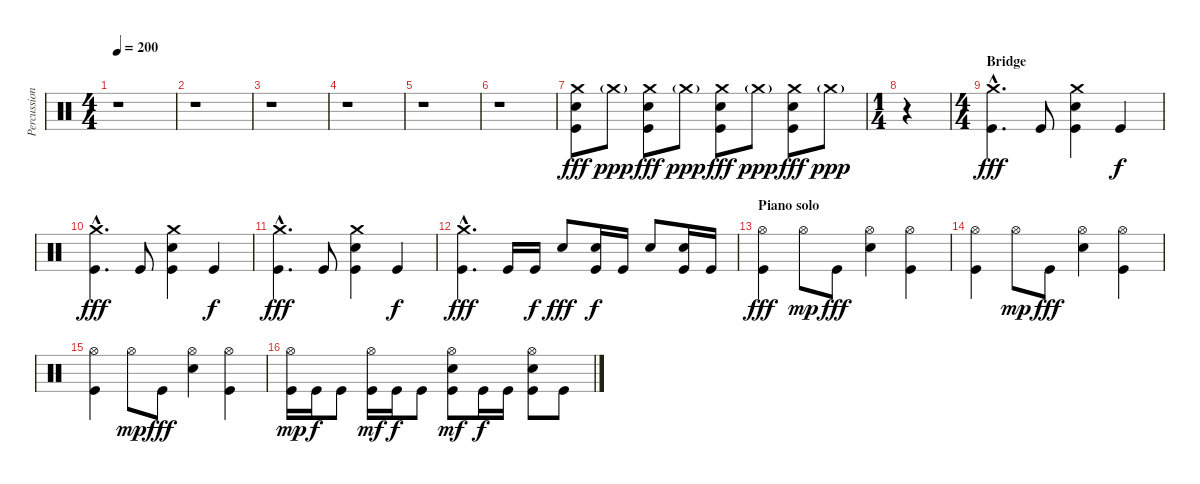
\track ("Percussion" "Percussion") {instrument percussion}
\staff {score}
\articulation defaults
\ts (4 4)
\tempo 200
\clef neutral
\ks c
r.1{dy f} |
r.1 |
r.1 |
r.1 |
r.1 |
r.1 |
("Crash medium (hit)" "Electric Snare (hit)" "Kick (hit)").8{dy fff} "Crash medium (hit)"{g}.8{dy ppp} ("Crash medium (hit)" "Electric Snare (hit)" "Kick (hit)").8{dy fff} "Crash medium (hit)"{g}.8{dy ppp} ("Crash medium (hit)" "Electric Snare (hit)" "Kick (hit)").8{dy fff} "Crash medium (hit)"{g}.8{dy ppp} ("Crash medium (hit)" "Electric Snare (hit)" "Kick (hit)").8{dy fff} "Crash medium (hit)"{g}.8{dy ppp} |
\ts (1 4)
r.4 |
\ts (4 4)
\section ("" "Bridge")
("Crash medium (hit)"{hac} "Kick (hit)"{hac}).4{d dy fff} "Kick (hit)".8 ("Crash medium (hit)" "Electric Snare (hit)" "Kick (hit)").4 "Kick (hit)".4{dy f} |
("Crash medium (hit)"{hac} "Kick (hit)"{hac}).4{d dy fff} "Kick (hit)".8 ("Crash medium (hit)" "Electric Snare (hit)" "Kick (hit)").4 "Kick (hit)".4{dy f} |
("Crash medium (hit)"{hac} "Kick (hit)"{hac}).4{d dy fff} "Kick (hit)".8 ("Crash medium (hit)" "Electric Snare (hit)" "Kick (hit)").4 "Kick (hit)".4{dy f} |
("Crash medium (hit)"{hac} "Kick (hit)"{hac}).4{d dy fff} "Kick (hit)".16 "Kick (hit)".16{dy f} "Electric Snare (hit)".8{dy fff} ("Electric Snare (hit)" "Kick (hit)").16{dy f} "Kick (hit)".16 "Electric Snare (hit)".8 ("Electric Snare (hit)" "Kick (hit)").16 "Kick (hit)".16 |
\section ("" "Piano solo")
("Hi-Hat (open)" "Kick (hit)").4{dy fff} "Hi-Hat (open)".8{dy mp} "Kick (hit)".8{dy fff} ("Hi-Hat (open)" "Electric Snare (hit)").4 ("Hi-Hat (open)" "Kick (hit)").4 |
("Hi-Hat (open)" "Kick (hit)").4 "Hi-Hat (open)".8{dy mp} "Kick (hit)".8{dy fff} ("Hi-Hat (open)" "Electric Snare (hit)").4 ("Hi-Hat (open)" "Kick (hit)").4 |
("Hi-Hat (open)" "Kick (hit)").4 "Hi-Hat (open)".8{dy mp} "Kick (hit)".8{dy fff} ("Hi-Hat (open)" "Electric Snare (hit)").4 ("Hi-Hat (open)" "Kick (hit)").4 |
("Hi-Hat (open)" "Kick (hit)").16{dy mp} "Kick (hit)".16{dy f} "Kick (hit)".8 ("Hi-Hat (open)" "Kick (hit)").16{dy mf} "Kick (hit)".16{dy f} "Kick (hit)".8 ("Hi-Hat (open)" "Electric Snare (hit)" "Kick (hit)").8{dy mf} "Kick (hit)".16{dy f} "Kick (hit)".16 ("Hi-Hat (open)" "Electric Snare (hit)" "Kick (hit)").8 "Kick (hit)".8
